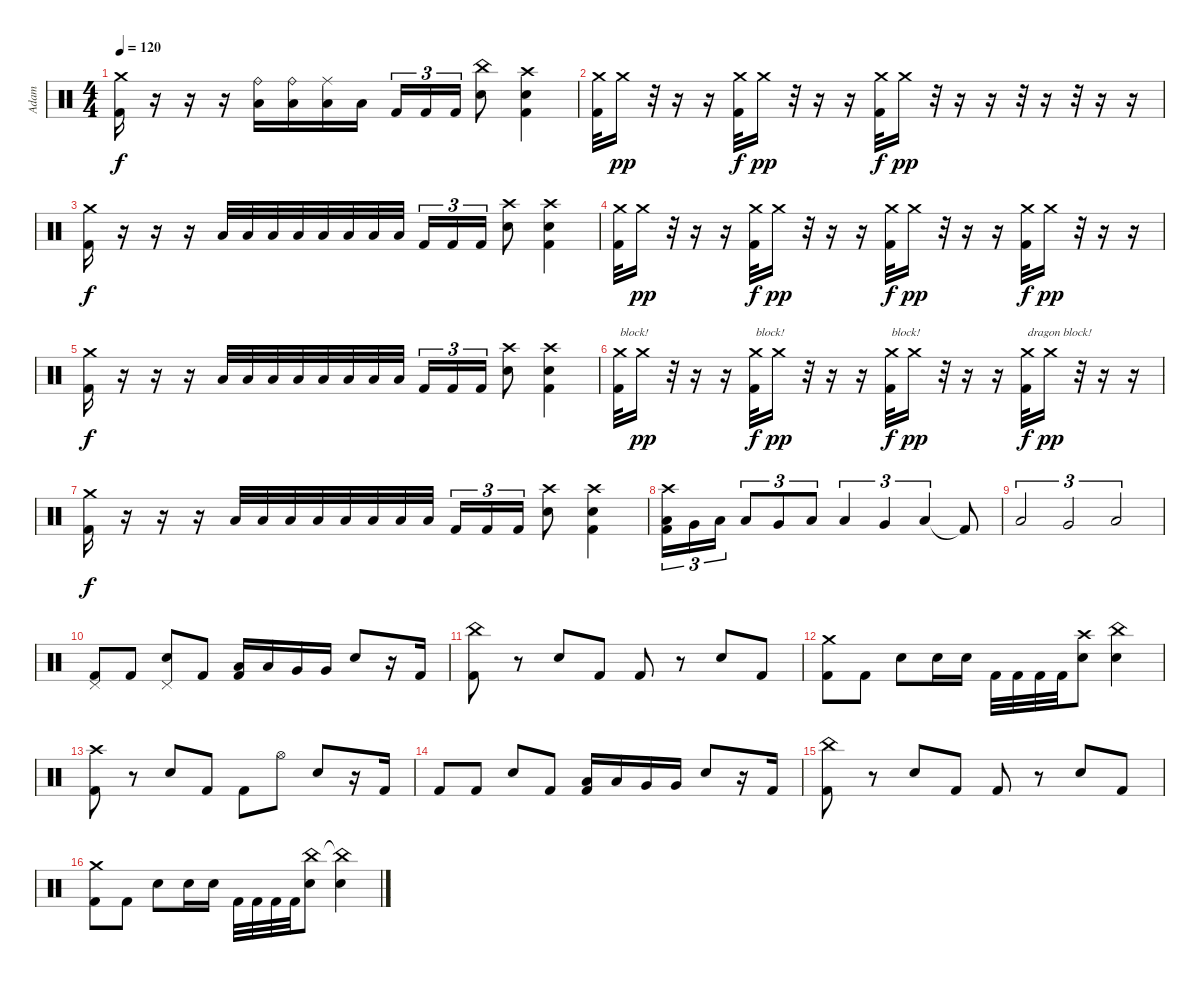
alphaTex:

\track ("Adam" "Adam") {instrument percussion}
\staff {score}
\articulation defaults
\ts (4 4)
\tempo 120
\clef neutral
\ks c
("Crash medium (hit)" "Kick (hit) 2").16{dy f} r.16 r.16 r.16 ("Ride (bell)" "Low Tom (hit)").16 ("Ride (bell)" "Low Tom (hit)").16 ("Ride (middle)" "Low Tom (hit)").16 "Low Tom (hit)".16 "Kick (hit) 2".16{tu (3 2)} "Kick (hit) 2".16{tu (3 2)} "Kick (hit) 2".16{tu (3 2)} ("China (hit)" "Electric Snare (hit)").8 ("Crash high (hit)" "Electric Snare (hit)" "Kick (hit) 2").4 |
("Crash medium (hit)" "Kick (hit) 2").32 "Crash medium (hit)".16{dy pp} r.32 r.16 r.16 ("Crash medium (hit)" "Kick (hit) 2").32{dy f} "Crash medium (hit)".16{dy pp} r.32 r.16 r.16 ("Crash medium (hit)" "Kick (hit) 2").32{dy f} "Crash medium (hit)".16{dy pp} r.32 r.16 r.16 r.32 r.16 r.32 r.16 r.16 |
("Crash medium (hit)" "Kick (hit) 2").16{dy f} r.16 r.16 r.16 "Low Tom (hit)".32 "Low Tom (hit)".32 "Low Tom (hit)".32 "Low Tom (hit)".32 "Low Tom (hit)".32 "Low Tom (hit)".32 "Low Tom (hit)".32 "Low Tom (hit)".32 "Kick (hit) 2".16{tu (3 2)} "Kick (hit) 2".16{tu (3 2)} "Kick (hit) 2".16{tu (3 2)} ("Crash high (hit)" "Electric Snare (hit)").8 ("Crash high (hit)" "Electric Snare (hit)" "Kick (hit) 2").4 |
("Crash medium (hit)" "Kick (hit) 2").32 "Crash medium (hit)".16{dy pp} r.32 r.16 r.16 ("Crash medium (hit)" "Kick (hit) 2").32{dy f} "Crash medium (hit)".16{dy pp} r.32 r.16 r.16 ("Crash medium (hit)" "Kick (hit) 2").32{dy f} "Crash medium (hit)".16{dy pp} r.32 r.16 r.16 ("Crash medium (hit)" "Kick (hit) 2").32{dy f} "Crash medium (hit)".16{dy pp} r.32 r.16 r.16 |
("Crash medium (hit)" "Kick (hit) 2").16{dy f} r.16 r.16 r.16 "Low Tom (hit)".32 "Low Tom (hit)".32 "Low Tom (hit)".32 "Low Tom (hit)".32 "Low Tom (hit)".32 "Low Tom (hit)".32 "Low Tom (hit)".32 "Low Tom (hit)".32 "Kick (hit) 2".16{tu (3 2)} "Kick (hit) 2".16{tu (3 2)} "Kick (hit) 2".16{tu (3 2)} ("Crash high (hit)" "Electric Snare (hit)").8 ("Crash high (hit)" "Electric Snare (hit)" "Kick (hit) 2").4 |
("Crash medium (hit)" "Kick (hit) 2").32{txt "block!"} "Crash medium (hit)".16{dy pp} r.32 r.16 r.16 ("Crash medium (hit)" "Kick (hit) 2").32{txt "block!" dy f} "Crash medium (hit)".16{dy pp} r.32 r.16 r.16 ("Crash medium (hit)" "Kick (hit) 2").32{txt "block!" dy f} "Crash medium (hit)".16{dy pp} r.32 r.16 r.16 ("Crash medium (hit)" "Kick (hit) 2").32{txt "dragon block!" dy f} "Crash medium (hit)".16{dy pp} r.32 r.16 r.16 |
("Crash medium (hit)" "Kick (hit) 2").16{dy f} r.16 r.16 r.16 "Low Tom (hit)".32 "Low Tom (hit)".32 "Low Tom (hit)".32 "Low Tom (hit)".32 "Low Tom (hit)".32 "Low Tom (hit)".32 "Low Tom (hit)".32 "Low Tom (hit)".32 "Kick (hit) 2".16{tu (3 2)} "Kick (hit) 2".16{tu (3 2)} "Kick (hit) 2".16{tu (3 2)} ("Crash high (hit)" "Electric Snare (hit)").8 ("Crash high (hit)" "Electric Snare (hit)" "Kick (hit) 2").4 |
("Crash high (hit)" "Low Tom (hit)" "Kick (hit) 2").16{tu (3 2)} "Very Low Tom (hit)".16{tu (3 2)} "Low Floor Tom (hit)".16{tu (3 2)} "Low Tom (hit)".8{tu (3 2)} "Very Low Tom (hit)".8{tu (3 2)} "Low Floor Tom (hit)".8{tu (3 2)} "Low Tom (hit)".4{tu (3 2)} "Very Low Tom (hit)".4{tu (3 2)} "Low Floor Tom (hit)".4{tu (3 2)} "Kick (hit) 2"{t}.8 |
"Low Tom (hit)".2{tu (3 2)} "Very Low Tom (hit)".2{tu (3 2)} "Low Floor Tom (hit)".2{tu (3 2)} |
("Pedal Hi-Hat (hit)" "Kick (hit) 2").8 "Kick (hit) 2".8 ("Pedal Hi-Hat (hit)" "Electric Snare (hit)").8 "Kick (hit) 2".8 ("Low Tom (hit)" "Kick (hit) 2").16 "Low Tom (hit)".16 "Very Low Tom (hit)".16 "Very Low Tom (hit)".16 "Electric Snare (hit)".8 r.16 "Kick (hit) 2".16 |
("China (hit)" "Kick (hit) 2").8 r.8 "Electric Snare (hit)".8 "Kick (hit) 2".8 "Kick (hit) 2".8 r.8 "Electric Snare (hit)".8 "Kick (hit) 2".8 |
("Crash medium (hit)" "Kick (hit) 2").8 "Kick (hit) 2".8 "Electric Snare (hit)".8 "Electric Snare (hit)".16 "Electric Snare (hit)".16 "Kick (hit) 2".32 "Kick (hit) 2".32 "Kick (hit) 2".32 "Kick (hit) 2".32 ("Crash high (hit)" "Electric Snare (hit)").8 ("China (hit)" "Electric Snare (hit)").4 |
("Crash high (hit)" "Kick (hit) 2").8 r.8 "Electric Snare (hit)".8 "Kick (hit) 2".8 "Kick (hit) 2".8 "Hi-Hat (open)".8 "Electric Snare (hit)".8 r.16 "Kick (hit) 2".16 |
"Kick (hit) 2".8 "Kick (hit) 2".8 "Electric Snare (hit)".8 "Kick (hit) 2".8 ("Low Tom (hit)" "Kick (hit) 2").16 "Low Tom (hit)".16 "Very Low Tom (hit)".16 "Very Low Tom (hit)".16 "Electric Snare (hit)".8 r.16 "Kick (hit) 2".16 |
("China (hit)" "Kick (hit) 2").8 r.8 "Electric Snare (hit)".8 "Kick (hit) 2".8 "Kick (hit) 2".8 r.8 "Electric Snare (hit)".8 "Kick (hit) 2".8 |
("Crash medium (hit)" "Kick (hit) 2").8 "Kick (hit) 2".8 "Electric Snare (hit)".8 "Electric Snare (hit)".16 "Electric Snare (hit)".16 "Kick (hit) 2".32 "Kick (hit) 2".32 "Kick (hit) 2".32 "Kick (hit) 2".32 ("China (hit)" "Electric Snare (hit)").8 ("China (hit)"{t} "Electric Snare (hit)").4
